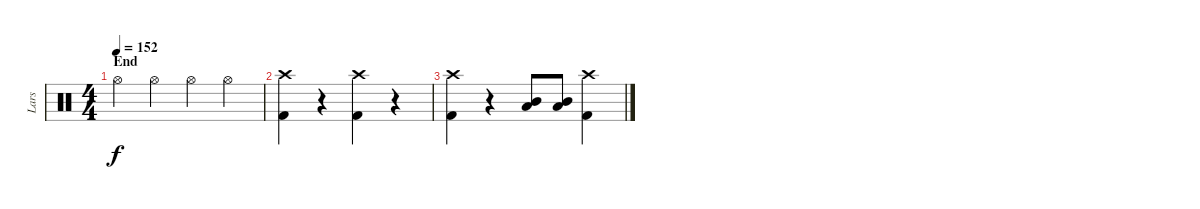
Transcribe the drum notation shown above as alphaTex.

\track ("Lars" "Lars") {instrument percussion}
\staff {score}
\articulation defaults
\ts (4 4)
\section ("" "End")
\tempo 152
\clef neutral
\ks c "Hi-Hat (open)".4{dy f} "Hi-Hat (open)".4 "Hi-Hat (open)".4 "Hi-Hat (open)".4
|
("Crash high (hit)" "Kick (hit) 2").4 r.4 ("Crash high (hit)" "Kick (hit) 2").4 r.4 |
("Crash high (hit)" "Kick (hit) 2").4 r.4 ("Mid Tom (hit)" "Low Tom (hit)").8 ("Mid Tom (hit)" "Low Tom (hit)").8 ("Crash high (hit)" "Kick (hit) 2").4
